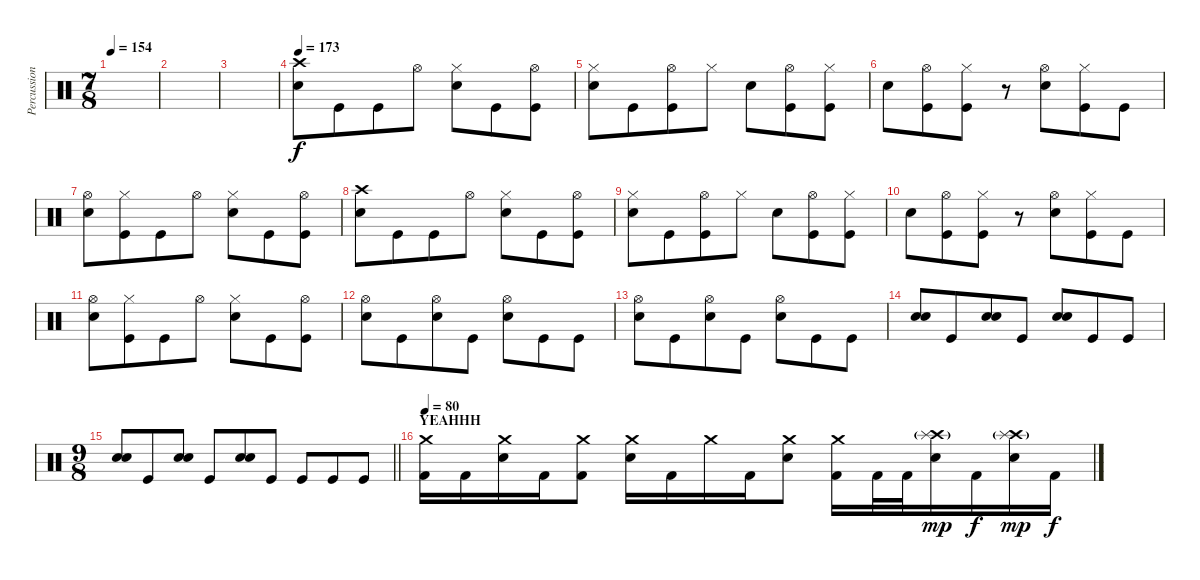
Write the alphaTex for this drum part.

\track ("Percussion" "Percussion") {instrument percussion}
\staff {score}
\articulation defaults
\ts (7 8)
\tempo 154
\clef neutral
\ks c
|
|
|
\tempo 173
("Crash high (hit)" "Electric Snare (hit)").8 "Kick (hit)".8 "Kick (hit)".8 "Hi-Hat (open)".8 ("Hi-Hat (closed)" "Electric Snare (hit)").8 "Kick (hit)".8 ("Hi-Hat (open)" "Kick (hit)").8 |
("Hi-Hat (closed)" "Electric Snare (hit)").8 "Kick (hit)".8 ("Hi-Hat (open)" "Kick (hit)").8 "Hi-Hat (closed)".8 "Electric Snare (hit)".8 ("Hi-Hat (open)" "Kick (hit)").8 ("Hi-Hat (closed)" "Kick (hit)").8 |
"Electric Snare (hit)".8 ("Hi-Hat (open)" "Kick (hit)").8 ("Hi-Hat (closed)" "Kick (hit)").8 r.8 ("Hi-Hat (open)" "Electric Snare (hit)").8 ("Hi-Hat (closed)" "Kick (hit)").8 "Kick (hit)".8 |
("Hi-Hat (open)" "Electric Snare (hit)").8 ("Hi-Hat (closed)" "Kick (hit)").8 "Kick (hit)".8 "Hi-Hat (open)".8 ("Hi-Hat (closed)" "Electric Snare (hit)").8 "Kick (hit)".8 ("Hi-Hat (open)" "Kick (hit)").8 |
("Crash high (hit)" "Electric Snare (hit)").8 "Kick (hit)".8 "Kick (hit)".8 "Hi-Hat (open)".8 ("Hi-Hat (closed)" "Electric Snare (hit)").8 "Kick (hit)".8 ("Hi-Hat (open)" "Kick (hit)").8 |
("Hi-Hat (closed)" "Electric Snare (hit)").8 "Kick (hit)".8 ("Hi-Hat (open)" "Kick (hit)").8 "Hi-Hat (closed)".8 "Electric Snare (hit)".8 ("Hi-Hat (open)" "Kick (hit)").8 ("Hi-Hat (closed)" "Kick (hit)").8 |
"Electric Snare (hit)".8 ("Hi-Hat (open)" "Kick (hit)").8 ("Hi-Hat (closed)" "Kick (hit)").8 r.8 ("Hi-Hat (open)" "Electric Snare (hit)").8 ("Hi-Hat (closed)" "Kick (hit)").8 "Kick (hit)".8 |
("Hi-Hat (open)" "Electric Snare (hit)").8 ("Hi-Hat (closed)" "Kick (hit)").8 "Kick (hit)".8 "Hi-Hat (open)".8 ("Hi-Hat (closed)" "Electric Snare (hit)").8 "Kick (hit)".8 ("Hi-Hat (open)" "Kick (hit)").8 |
("Hi-Hat (open)" "Electric Snare (hit)").8 "Kick (hit)".8 ("Hi-Hat (open)" "Electric Snare (hit)").8 "Kick (hit)".8 ("Hi-Hat (open)" "Electric Snare (hit)").8 "Kick (hit)".8 "Kick (hit)".8 |
("Hi-Hat (open)" "Electric Snare (hit)").8 "Kick (hit)".8 ("Hi-Hat (open)" "Electric Snare (hit)").8 "Kick (hit)".8 ("Hi-Hat (open)" "Electric Snare (hit)").8 "Kick (hit)".8 "Kick (hit)".8 |
("Electric Snare (hit)" "Electric Snare (hit)").8{bd 60} "Kick (hit)".8 ("Electric Snare (hit)" "Electric Snare (hit)").8{bd 60} "Kick (hit)".8 ("Electric Snare (hit)" "Electric Snare (hit)").8{bd 60} "Kick (hit)".8 "Kick (hit)".8 |
\ts (9 8)
\barLineRight lightlight
("Electric Snare (hit)" "Electric Snare (hit)").8{bd 60} "Kick (hit)".8 ("Electric Snare (hit)" "Electric Snare (hit)").8{bd 60} "Kick (hit)".8 ("Electric Snare (hit)" "Electric Snare (hit)").8{bd 60} "Kick (hit)".8 "Kick (hit)".8 "Kick (hit)".8 "Kick (hit)".8 |
\section ("" "YEAHHH")
\tempo 80
("Crash medium (hit)" "Kick (hit) 2").16 "Kick (hit) 2".16 ("Crash medium (hit)" "Electric Snare (hit)").16 "Kick (hit) 2".16 ("Crash medium (hit)" "Kick (hit) 2").8 ("Crash medium (hit)" "Electric Snare (hit)").16 "Kick (hit) 2".16 "Crash medium (hit)".16 "Kick (hit) 2".16 ("Crash medium (hit)" "Electric Snare (hit)").8 ("Crash medium (hit)" "Kick (hit) 2").16 "Kick (hit) 2".32 "Kick (hit) 2".32 ("Crash high (hit)"{g} "Splash (hit)" "Electric Snare (hit)").16{dy mp} "Kick (hit) 2".16{dy f} ("Crash high (hit)"{g} "Splash (hit)" "Electric Snare (hit)").16{dy mp} "Kick (hit) 2".16{dy f}
